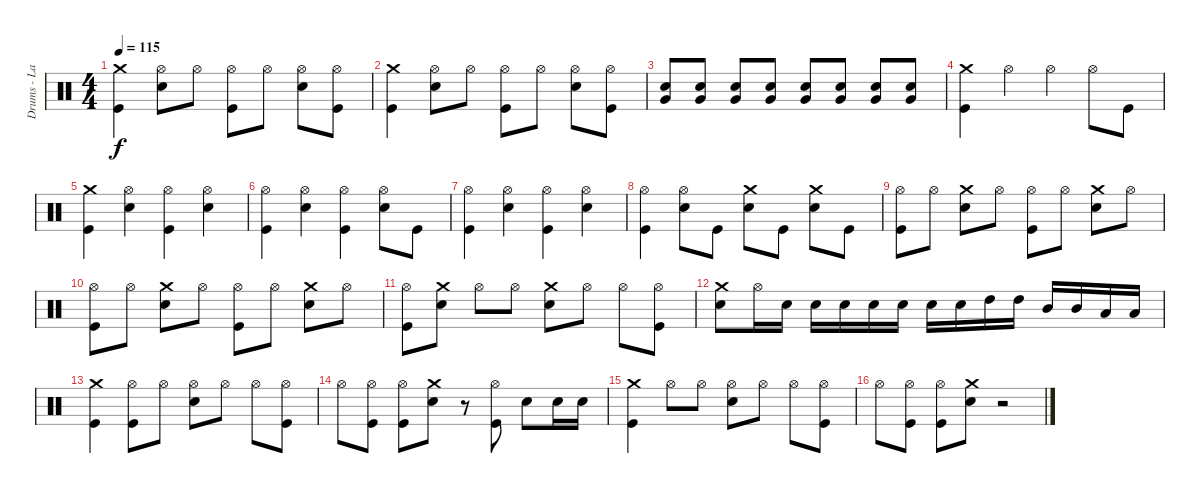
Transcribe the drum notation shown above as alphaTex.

\track ("Drums - Lars Ulrich" "Drums - La") {instrument percussion}
\staff {score}
\articulation defaults
\ts (4 4)
\tempo 115
\clef neutral
\ks c
("Kick (hit)" "Crash medium (hit)").4{dy f} ("Electric Snare (hit)" "Hi-Hat (open)").8 "Hi-Hat (open)".8 ("Kick (hit)" "Hi-Hat (open)").8 "Hi-Hat (open)".8 ("Electric Snare (hit)" "Hi-Hat (open)").8 ("Kick (hit)" "Hi-Hat (open)").8 |
("Kick (hit)" "Crash medium (hit)").4 ("Electric Snare (hit)" "Hi-Hat (open)").8 "Hi-Hat (open)".8 ("Kick (hit)" "Hi-Hat (open)").8 "Hi-Hat (open)".8 ("Electric Snare (hit)" "Hi-Hat (open)").8 ("Kick (hit)" "Hi-Hat (open)").8 |
("Electric Snare (hit)" "Very Low Tom (hit)").8 ("Electric Snare (hit)" "Very Low Tom (hit)").8 ("Electric Snare (hit)" "Very Low Tom (hit)").8 ("Electric Snare (hit)" "Very Low Tom (hit)").8 ("Electric Snare (hit)" "Very Low Tom (hit)").8 ("Electric Snare (hit)" "Very Low Tom (hit)").8 ("Electric Snare (hit)" "Very Low Tom (hit)").8 ("Electric Snare (hit)" "Very Low Tom (hit)").8 |
("Kick (hit)" "Crash medium (hit)").4 "Hi-Hat (open)".4 "Hi-Hat (open)".4 "Hi-Hat (open)".8 "Kick (hit)".8 |
("Kick (hit)" "Crash medium (hit)").4 ("Electric Snare (hit)" "Hi-Hat (open)").4 ("Kick (hit)" "Hi-Hat (open)").4 ("Electric Snare (hit)" "Hi-Hat (open)").4 |
("Kick (hit)" "Hi-Hat (open)").4 ("Electric Snare (hit)" "Hi-Hat (open)").4 ("Kick (hit)" "Hi-Hat (open)").4 ("Electric Snare (hit)" "Hi-Hat (open)").8 "Kick (hit)".8 |
("Kick (hit)" "Hi-Hat (open)").4 ("Electric Snare (hit)" "Hi-Hat (open)").4 ("Kick (hit)" "Hi-Hat (open)").4 ("Electric Snare (hit)" "Hi-Hat (open)").4 |
("Kick (hit)" "Hi-Hat (open)").4 ("Electric Snare (hit)" "Hi-Hat (open)").8 "Kick (hit)".8 ("Electric Snare (hit)" "Crash medium (hit)").8 "Kick (hit)".8 ("Electric Snare (hit)" "Crash medium (hit)").8 "Kick (hit)".8 |
("Kick (hit)" "Hi-Hat (open)").8 "Hi-Hat (open)".8 ("Electric Snare (hit)" "Crash medium (hit)").8 "Hi-Hat (open)".8 ("Kick (hit)" "Hi-Hat (open)").8 "Hi-Hat (open)".8 ("Electric Snare (hit)" "Crash medium (hit)").8 "Hi-Hat (open)".8 |
("Kick (hit)" "Hi-Hat (open)").8 "Hi-Hat (open)".8 ("Electric Snare (hit)" "Crash medium (hit)").8 "Hi-Hat (open)".8 ("Kick (hit)" "Hi-Hat (open)").8 "Hi-Hat (open)".8 ("Electric Snare (hit)" "Crash medium (hit)").8 "Hi-Hat (open)".8 |
("Kick (hit)" "Hi-Hat (open)").8 ("Electric Snare (hit)" "Crash medium (hit)").8 "Hi-Hat (open)".8 "Hi-Hat (open)".8 ("Electric Snare (hit)" "Crash medium (hit)").8 "Hi-Hat (open)".8 "Hi-Hat (open)".8 ("Kick (hit)" "Hi-Hat (open)").8 |
("Electric Snare (hit)" "Crash medium (hit)").8 "Hi-Hat (open)".16 "Electric Snare (hit)".16 "Electric Snare (hit)".16 "Electric Snare (hit)".16 "Electric Snare (hit)".16 "Electric Snare (hit)".16 "Electric Snare (hit)".16 "Electric Snare (hit)".16 "High Tom (hit)".16 "High Tom (hit)".16 "Mid Tom (hit)".16 "Mid Tom (hit)".16 "Low Tom (hit)".16 "Low Tom (hit)".16 |
("Kick (hit)" "Crash medium (hit)").4 ("Kick (hit)" "Hi-Hat (open)").8 "Hi-Hat (open)".8 ("Electric Snare (hit)" "Hi-Hat (open)").8 "Hi-Hat (open)".8 "Hi-Hat (open)".8 ("Kick (hit)" "Hi-Hat (open)").8 |
"Hi-Hat (open)".8 ("Kick (hit)" "Hi-Hat (open)").8 ("Kick (hit)" "Hi-Hat (open)").8 ("Electric Snare (hit)" "Crash medium (hit)").8 r.8 ("Kick (hit)" "Hi-Hat (open)").8 "Electric Snare (hit)".8 "Electric Snare (hit)".16 "Electric Snare (hit)".16 |
("Kick (hit)" "Crash medium (hit)").4 "Hi-Hat (open)".8 "Hi-Hat (open)".8 ("Electric Snare (hit)" "Hi-Hat (open)").8 "Hi-Hat (open)".8 "Hi-Hat (open)".8 ("Kick (hit)" "Hi-Hat (open)").8 |
"Hi-Hat (open)".8 ("Kick (hit)" "Hi-Hat (open)").8 ("Kick (hit)" "Hi-Hat (open)").8 ("Electric Snare (hit)" "Crash medium (hit)").8 r.2
